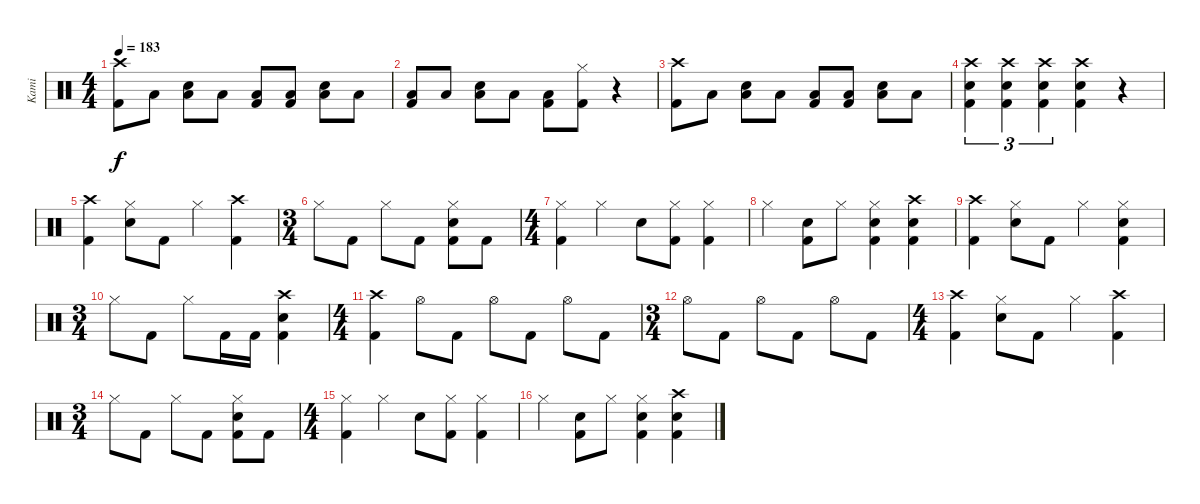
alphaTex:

\track ("Kami" "Kami") {instrument percussion}
\staff {score}
\articulation defaults
\ts (4 4)
\tempo 183
\clef neutral
\ks c
("Crash high (hit)" "Kick (hit) 2").8{dy f} "Low Tom (hit)".8 ("Electric Snare (hit)" "Low Tom (hit)").8 "Low Tom (hit)".8 ("Kick (hit) 2" "Low Tom (hit)").8 ("Kick (hit) 2" "Low Tom (hit)").8 ("Electric Snare (hit)" "Low Tom (hit)").8 "Low Tom (hit)".8 |
("Low Tom (hit)" "Kick (hit) 2").8 "Low Tom (hit)".8 ("Electric Snare (hit)" "Low Tom (hit)").8 "Low Tom (hit)".8 ("Low Tom (hit)" "Kick (hit) 2").8 ("Hi-Hat (closed)" "Kick (hit) 2").8 r.4 |
("Crash high (hit)" "Kick (hit) 2").8 "Low Tom (hit)".8 ("Electric Snare (hit)" "Low Tom (hit)").8 "Low Tom (hit)".8 ("Kick (hit) 2" "Low Tom (hit)").8 ("Kick (hit) 2" "Low Tom (hit)").8 ("Electric Snare (hit)" "Low Tom (hit)").8 "Low Tom (hit)".8 |
("Crash high (hit)" "Electric Snare (hit)" "Kick (hit) 2").4{tu (3 2)} ("Crash high (hit)" "Electric Snare (hit)" "Kick (hit) 2").4{tu (3 2)} ("Crash high (hit)" "Electric Snare (hit)" "Kick (hit) 2").4{tu (3 2)} ("Crash high (hit)" "Electric Snare (hit)" "Kick (hit) 2").4 r.4 |
("Crash high (hit)" "Kick (hit) 2").4 ("Hi-Hat (closed)" "Electric Snare (hit)").8 "Kick (hit) 2".8 "Hi-Hat (closed)".4 ("Crash high (hit)" "Kick (hit) 2").4 |
\ts (3 4)
"Hi-Hat (closed)".8 "Kick (hit) 2".8 "Hi-Hat (closed)".8 "Kick (hit) 2".8 ("Hi-Hat (closed)" "Electric Snare (hit)" "Kick (hit) 2").8 "Kick (hit) 2".8 |
\ts (4 4)
("Hi-Hat (closed)" "Kick (hit) 2").4 "Hi-Hat (closed)".4 "Electric Snare (hit)".8 ("Hi-Hat (closed)" "Kick (hit) 2").8 ("Hi-Hat (closed)" "Kick (hit) 2").4 |
"Hi-Hat (closed)".4 ("Electric Snare (hit)" "Kick (hit) 2").8 "Hi-Hat (closed)".8 ("Hi-Hat (closed)" "Electric Snare (hit)" "Kick (hit) 2").4 ("Crash high (hit)" "Electric Snare (hit)" "Kick (hit) 2").4 |
("Crash high (hit)" "Kick (hit) 2").4 ("Hi-Hat (closed)" "Electric Snare (hit)").8 "Kick (hit) 2".8 "Hi-Hat (closed)".4 ("Hi-Hat (closed)" "Electric Snare (hit)" "Kick (hit) 2").4 |
\ts (3 4)
"Hi-Hat (closed)".8 "Kick (hit) 2".8 "Hi-Hat (closed)".8 "Kick (hit) 2".16 "Kick (hit) 2".16 ("Crash high (hit)" "Electric Snare (hit)" "Kick (hit) 2").4 |
\ts (4 4)
("Crash high (hit)" "Kick (hit) 2").4 "Hi-Hat (open)".8 "Kick (hit) 2".8 "Hi-Hat (open)".8 "Kick (hit) 2".8 "Hi-Hat (open)".8 "Kick (hit) 2".8 |
\ts (3 4)
"Hi-Hat (open)".8 "Kick (hit) 2".8 "Hi-Hat (open)".8 "Kick (hit) 2".8 "Hi-Hat (open)".8 "Kick (hit) 2".8 |
\ts (4 4)
("Crash high (hit)" "Kick (hit) 2").4 ("Hi-Hat (closed)" "Electric Snare (hit)").8 "Kick (hit) 2".8 "Hi-Hat (closed)".4 ("Crash high (hit)" "Kick (hit) 2").4 |
\ts (3 4)
"Hi-Hat (closed)".8 "Kick (hit) 2".8 "Hi-Hat (closed)".8 "Kick (hit) 2".8 ("Hi-Hat (closed)" "Electric Snare (hit)" "Kick (hit) 2").8 "Kick (hit) 2".8 |
\ts (4 4)
("Hi-Hat (closed)" "Kick (hit) 2").4 "Hi-Hat (closed)".4 "Electric Snare (hit)".8 ("Hi-Hat (closed)" "Kick (hit) 2").8 ("Hi-Hat (closed)" "Kick (hit) 2").4 |
"Hi-Hat (closed)".4 ("Electric Snare (hit)" "Kick (hit) 2").8 "Hi-Hat (closed)".8 ("Hi-Hat (closed)" "Electric Snare (hit)" "Kick (hit) 2").4 ("Crash high (hit)" "Electric Snare (hit)" "Kick (hit) 2").4
